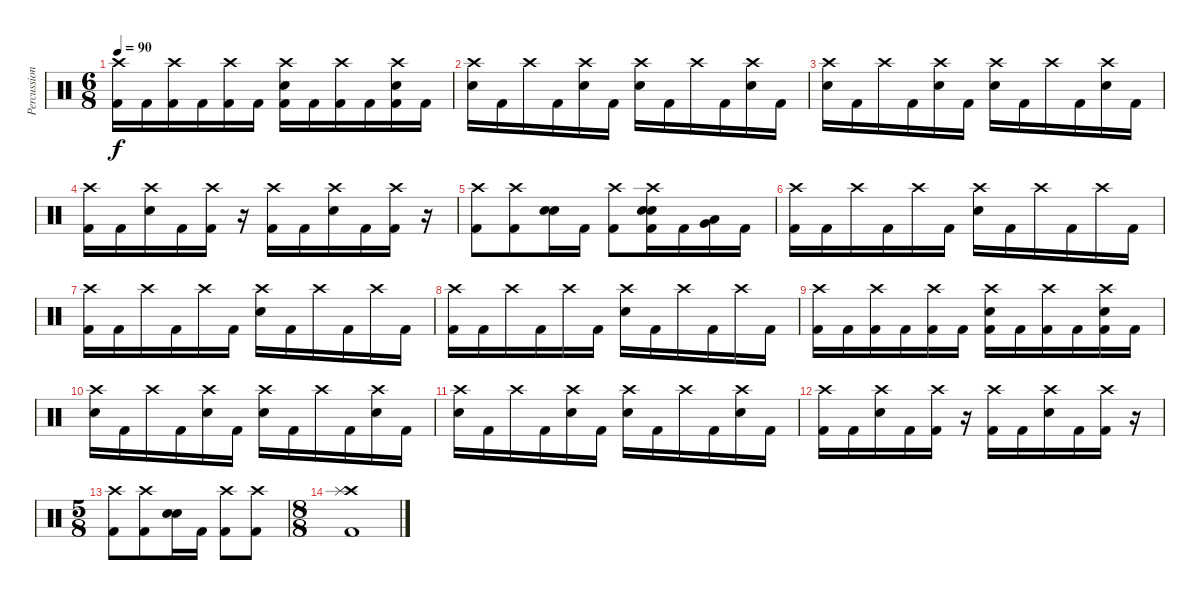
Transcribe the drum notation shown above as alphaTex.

\track ("Percussion" "Percussion") {instrument percussion}
\staff {score}
\articulation defaults
\ts (6 8)
\tempo 90
\clef neutral
\ks c
("Crash high (hit)" "Kick (hit) 2").16{dy f} "Kick (hit) 2".16 ("Crash high (hit)" "Kick (hit) 2").16 "Kick (hit) 2".16 ("Crash high (hit)" "Kick (hit) 2").16 "Kick (hit) 2".16 ("Crash high (hit)" "Electric Snare (hit)" "Kick (hit) 2").16 "Kick (hit) 2".16 ("Crash high (hit)" "Kick (hit) 2").16 "Kick (hit) 2".16 ("Crash high (hit)" "Electric Snare (hit)" "Kick (hit) 2").16 "Kick (hit) 2".16 |
("Crash high (hit)" "Electric Snare (hit)").16 "Kick (hit) 2".16 "Crash high (hit)".16 "Kick (hit) 2".16 ("Crash high (hit)" "Electric Snare (hit)").16 "Kick (hit) 2".16 ("Crash high (hit)" "Electric Snare (hit)").16 "Kick (hit) 2".16 "Crash high (hit)".16 "Kick (hit) 2".16 ("Crash high (hit)" "Electric Snare (hit)").16 "Kick (hit) 2".16 |
("Crash high (hit)" "Electric Snare (hit)").16 "Kick (hit) 2".16 "Crash high (hit)".16 "Kick (hit) 2".16 ("Crash high (hit)" "Electric Snare (hit)").16 "Kick (hit) 2".16 ("Crash high (hit)" "Electric Snare (hit)").16 "Kick (hit) 2".16 "Crash high (hit)".16 "Kick (hit) 2".16 ("Crash high (hit)" "Electric Snare (hit)").16 "Kick (hit) 2".16 |
("Crash high (hit)" "Kick (hit) 2").16 "Kick (hit) 2".16 ("Crash high (hit)" "Electric Snare (hit)").16 "Kick (hit) 2".16 ("Crash high (hit)" "Kick (hit) 2").16 r.16 ("Crash high (hit)" "Kick (hit) 2").16 "Kick (hit) 2".16 ("Crash high (hit)" "Electric Snare (hit)").16 "Kick (hit) 2".16 ("Crash high (hit)" "Kick (hit) 2").16 r.16 |
("Crash high (hit)" "Kick (hit) 2").8 ("Crash high (hit)" "Kick (hit) 2").8 ("Electric Snare (hit)" "Electric Snare (hit)").16 "Kick (hit) 2".16 ("Crash high (hit)" "Kick (hit) 2").8 ("Crash high (hit)" "Electric Snare (hit)" "Electric Snare (hit)" "Kick (hit) 2").16 "Kick (hit) 2".16 ("Low Floor Tom (hit)" "Very Low Tom (hit)").16 "Kick (hit) 2".16 |
("Crash high (hit)" "Kick (hit) 2").16 "Kick (hit) 2".16 "Crash high (hit)".16 "Kick (hit) 2".16 "Crash high (hit)".16 "Kick (hit) 2".16 ("Crash high (hit)" "Electric Snare (hit)").16 "Kick (hit) 2".16 "Crash high (hit)".16 "Kick (hit) 2".16 "Crash high (hit)".16 "Kick (hit) 2".16 |
("Crash high (hit)" "Kick (hit) 2").16 "Kick (hit) 2".16 "Crash high (hit)".16 "Kick (hit) 2".16 "Crash high (hit)".16 "Kick (hit) 2".16 ("Crash high (hit)" "Electric Snare (hit)").16 "Kick (hit) 2".16 "Crash high (hit)".16 "Kick (hit) 2".16 "Crash high (hit)".16 "Kick (hit) 2".16 |
("Crash high (hit)" "Kick (hit) 2").16 "Kick (hit) 2".16 "Crash high (hit)".16 "Kick (hit) 2".16 "Crash high (hit)".16 "Kick (hit) 2".16 ("Crash high (hit)" "Electric Snare (hit)").16 "Kick (hit) 2".16 "Crash high (hit)".16 "Kick (hit) 2".16 "Crash high (hit)".16 "Kick (hit) 2".16 |
("Crash high (hit)" "Kick (hit) 2").16 "Kick (hit) 2".16 ("Crash high (hit)" "Kick (hit) 2").16 "Kick (hit) 2".16 ("Crash high (hit)" "Kick (hit) 2").16 "Kick (hit) 2".16 ("Crash high (hit)" "Electric Snare (hit)" "Kick (hit) 2").16 "Kick (hit) 2".16 ("Crash high (hit)" "Kick (hit) 2").16 "Kick (hit) 2".16 ("Crash high (hit)" "Electric Snare (hit)" "Kick (hit) 2").16 "Kick (hit) 2".16 |
("Crash high (hit)" "Electric Snare (hit)").16 "Kick (hit) 2".16 "Crash high (hit)".16 "Kick (hit) 2".16 ("Crash high (hit)" "Electric Snare (hit)").16 "Kick (hit) 2".16 ("Crash high (hit)" "Electric Snare (hit)").16 "Kick (hit) 2".16 "Crash high (hit)".16 "Kick (hit) 2".16 ("Crash high (hit)" "Electric Snare (hit)").16 "Kick (hit) 2".16 |
("Crash high (hit)" "Electric Snare (hit)").16 "Kick (hit) 2".16 "Crash high (hit)".16 "Kick (hit) 2".16 ("Crash high (hit)" "Electric Snare (hit)").16 "Kick (hit) 2".16 ("Crash high (hit)" "Electric Snare (hit)").16 "Kick (hit) 2".16 "Crash high (hit)".16 "Kick (hit) 2".16 ("Crash high (hit)" "Electric Snare (hit)").16 "Kick (hit) 2".16 |
("Crash high (hit)" "Kick (hit) 2").16 "Kick (hit) 2".16 ("Crash high (hit)" "Electric Snare (hit)").16 "Kick (hit) 2".16 ("Crash high (hit)" "Kick (hit) 2").16 r.16 ("Crash high (hit)" "Kick (hit) 2").16 "Kick (hit) 2".16 ("Crash high (hit)" "Electric Snare (hit)").16 "Kick (hit) 2".16 ("Crash high (hit)" "Kick (hit) 2").16 r.16 |
\ts (5 8)
("Crash high (hit)" "Kick (hit) 2").8 ("Crash high (hit)" "Kick (hit) 2").8 ("Electric Snare (hit)" "Electric Snare (hit)").16 "Kick (hit) 2".16 ("Crash high (hit)" "Kick (hit) 2").8 ("Crash high (hit)" "Kick (hit) 2").8 |
\ts (8 8)
("Crash high (hit)" "Splash (hit)" "Kick (hit) 2").1
